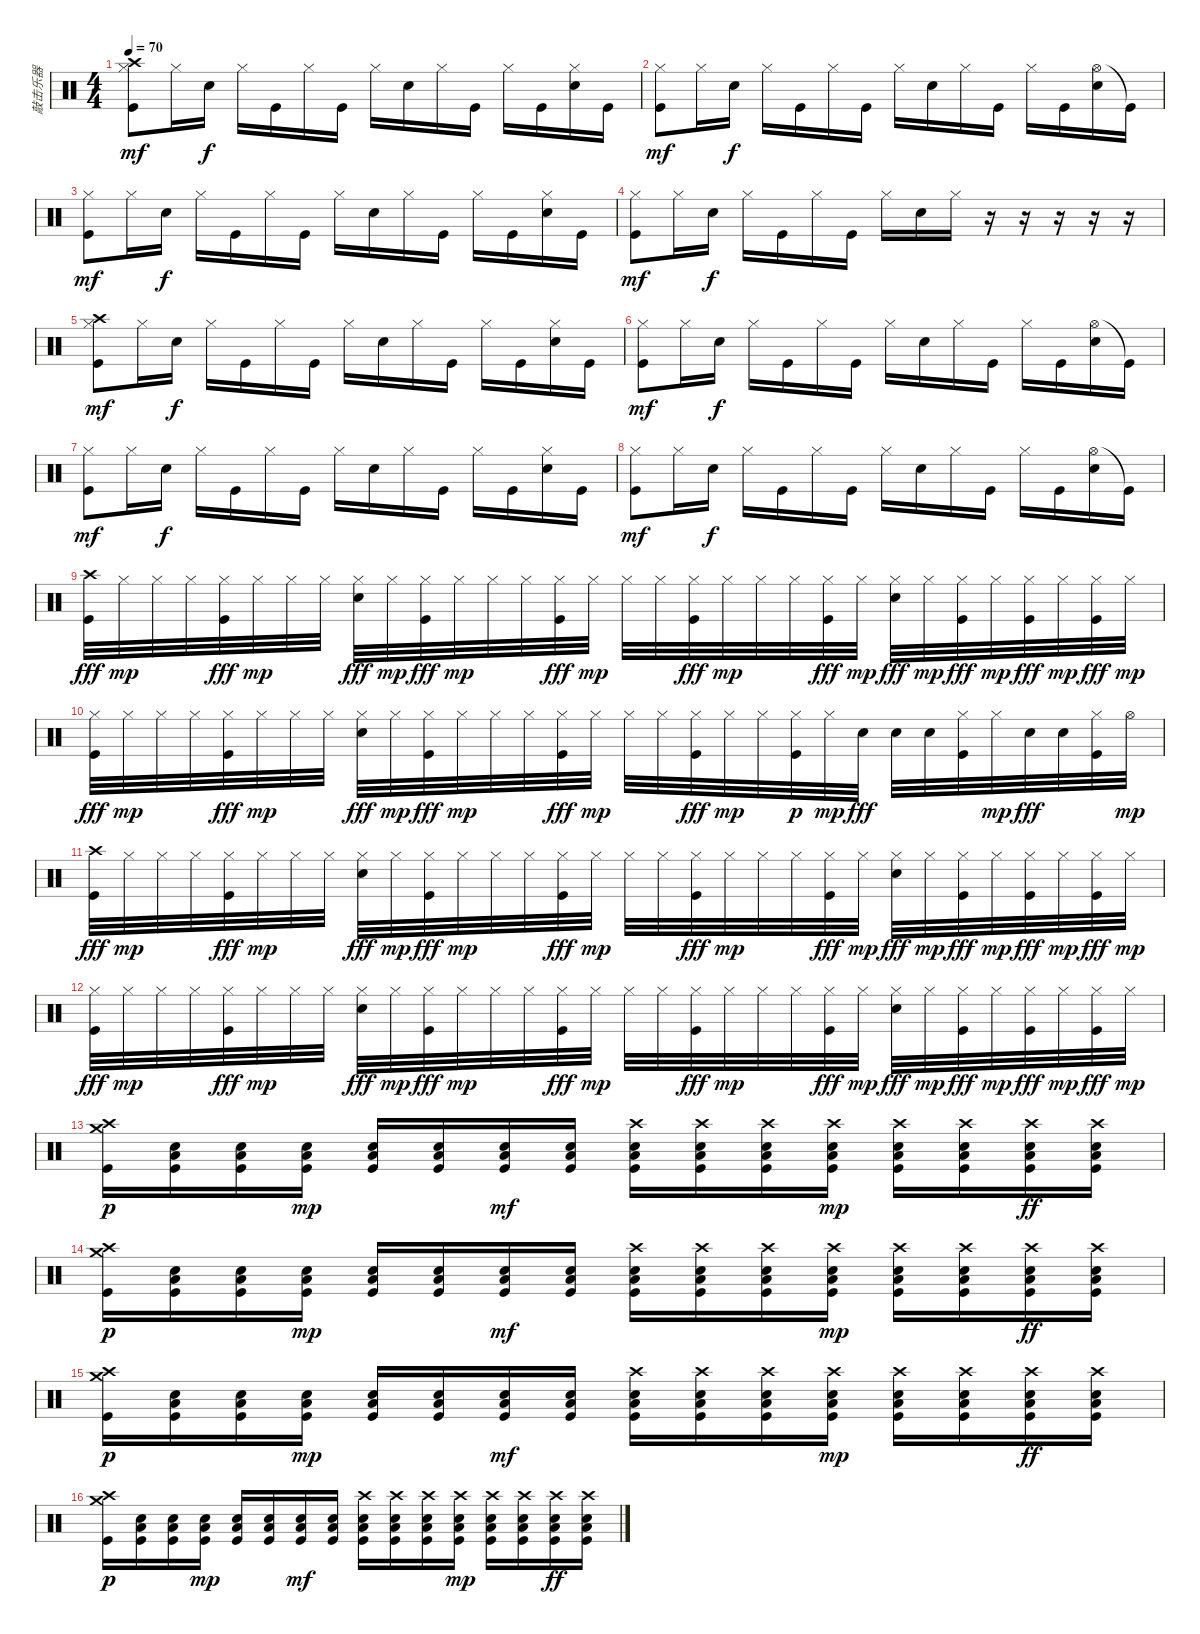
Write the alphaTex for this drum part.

\track ("敲击乐器" "敲击乐器") {instrument percussion}
\staff {score}
\articulation defaults
\ts (4 4)
\tempo 70
\clef neutral
\ks c
("Crash high (hit)" "Hi-Hat (closed)" "Kick (hit)").8{dy mf} "Hi-Hat (closed)".16 "Snare (hit) 2".16{dy f} "Hi-Hat (closed)".16 "Kick (hit)".16 "Hi-Hat (closed)".16 "Kick (hit)".16 "Hi-Hat (closed)".16 "Snare (hit) 2".16 "Hi-Hat (closed)".16 "Kick (hit)".16 "Hi-Hat (closed)".16 "Kick (hit)".16 ("Hi-Hat (closed)" "Snare (hit) 2").16 "Kick (hit)".16 |
("Hi-Hat (closed)" "Kick (hit)").8{dy mf} "Hi-Hat (closed)".16 "Snare (hit) 2".16{dy f} "Hi-Hat (closed)".16 "Kick (hit)".16 "Hi-Hat (closed)".16 "Kick (hit)".16 "Hi-Hat (closed)".16 "Snare (hit) 2".16 "Hi-Hat (closed)".16 "Kick (hit)".16 "Hi-Hat (closed)".16 "Kick (hit)".16 ("Hi-Hat (open)" "Snare (hit) 2").16 "Kick (hit)"{t}.16 |
("Hi-Hat (closed)" "Kick (hit)").8{dy mf} "Hi-Hat (closed)".16 "Snare (hit) 2".16{dy f} "Hi-Hat (closed)".16 "Kick (hit)".16 "Hi-Hat (closed)".16 "Kick (hit)".16 "Hi-Hat (closed)".16 "Snare (hit) 2".16 "Hi-Hat (closed)".16 "Kick (hit)".16 "Hi-Hat (closed)".16 "Kick (hit)".16 ("Hi-Hat (closed)" "Snare (hit) 2").16 "Kick (hit)".16 |
("Hi-Hat (closed)" "Kick (hit)").8{dy mf} "Hi-Hat (closed)".16 "Snare (hit) 2".16{dy f} "Hi-Hat (closed)".16 "Kick (hit)".16 "Hi-Hat (closed)".16 "Kick (hit)".16 "Hi-Hat (closed)".16 "Snare (hit) 2".16 "Hi-Hat (closed)".16 r.16 r.16 r.16 r.16 r.16 |
("Crash high (hit)" "Hi-Hat (closed)" "Kick (hit)").8{dy mf} "Hi-Hat (closed)".16 "Snare (hit) 2".16{dy f} "Hi-Hat (closed)".16 "Kick (hit)".16 "Hi-Hat (closed)".16 "Kick (hit)".16 "Hi-Hat (closed)".16 "Snare (hit) 2".16 "Hi-Hat (closed)".16 "Kick (hit)".16 "Hi-Hat (closed)".16 "Kick (hit)".16 ("Hi-Hat (closed)" "Snare (hit) 2").16 "Kick (hit)".16 |
("Hi-Hat (closed)" "Kick (hit)").8{dy mf} "Hi-Hat (closed)".16 "Snare (hit) 2".16{dy f} "Hi-Hat (closed)".16 "Kick (hit)".16 "Hi-Hat (closed)".16 "Kick (hit)".16 "Hi-Hat (closed)".16 "Snare (hit) 2".16 "Hi-Hat (closed)".16 "Kick (hit)".16 "Hi-Hat (closed)".16 "Kick (hit)".16 ("Hi-Hat (open)" "Snare (hit) 2").16 "Kick (hit)"{t}.16 |
("Hi-Hat (closed)" "Kick (hit)").8{dy mf} "Hi-Hat (closed)".16 "Snare (hit) 2".16{dy f} "Hi-Hat (closed)".16 "Kick (hit)".16 "Hi-Hat (closed)".16 "Kick (hit)".16 "Hi-Hat (closed)".16 "Snare (hit) 2".16 "Hi-Hat (closed)".16 "Kick (hit)".16 "Hi-Hat (closed)".16 "Kick (hit)".16 ("Hi-Hat (closed)" "Snare (hit) 2").16 "Kick (hit)".16 |
("Hi-Hat (closed)" "Kick (hit)").8{dy mf} "Hi-Hat (closed)".16 "Snare (hit) 2".16{dy f} "Hi-Hat (closed)".16 "Kick (hit)".16 "Hi-Hat (closed)".16 "Kick (hit)".16 "Hi-Hat (closed)".16 "Snare (hit) 2".16 "Hi-Hat (closed)".16 "Kick (hit)".16 "Hi-Hat (closed)".16 "Kick (hit)".16 ("Hi-Hat (open)" "Snare (hit) 2").16 "Kick (hit)"{t}.16 |
("Crash high (hit)" "Kick (hit)").32{dy fff} "Hi-Hat (closed)".32{dy mp} "Hi-Hat (closed)".32 "Hi-Hat (closed)".32 ("Hi-Hat (closed)" "Kick (hit)").32{dy fff} "Hi-Hat (closed)".32{dy mp} "Hi-Hat (closed)".32 "Hi-Hat (closed)".32 ("Hi-Hat (closed)" "Snare (hit) 2").32{dy fff} "Hi-Hat (closed)".32{dy mp} ("Hi-Hat (closed)" "Kick (hit)").32{dy fff} "Hi-Hat (closed)".32{dy mp} "Hi-Hat (closed)".32 "Hi-Hat (closed)".32 ("Hi-Hat (closed)" "Kick (hit)").32{dy fff} "Hi-Hat (closed)".32{dy mp} "Hi-Hat (closed)".32 "Hi-Hat (closed)".32 ("Hi-Hat (closed)" "Kick (hit)").32{dy fff} "Hi-Hat (closed)".32{dy mp} "Hi-Hat (closed)".32 "Hi-Hat (closed)".32 ("Hi-Hat (closed)" "Kick (hit)").32{dy fff} "Hi-Hat (closed)".32{dy mp} ("Hi-Hat (closed)" "Snare (hit) 2").32{dy fff} "Hi-Hat (closed)".32{dy mp} ("Hi-Hat (closed)" "Kick (hit)").32{dy fff} "Hi-Hat (closed)".32{dy mp} ("Hi-Hat (closed)" "Kick (hit)").32{dy fff} "Hi-Hat (closed)".32{dy mp} ("Hi-Hat (closed)" "Kick (hit)").32{dy fff} "Hi-Hat (closed)".32{dy mp} |
("Hi-Hat (closed)" "Kick (hit)").32{dy fff} "Hi-Hat (closed)".32{dy mp} "Hi-Hat (closed)".32 "Hi-Hat (closed)".32 ("Hi-Hat (closed)" "Kick (hit)").32{dy fff} "Hi-Hat (closed)".32{dy mp} "Hi-Hat (closed)".32 "Hi-Hat (closed)".32 ("Hi-Hat (closed)" "Snare (hit) 2").32{dy fff} "Hi-Hat (closed)".32{dy mp} ("Hi-Hat (closed)" "Kick (hit)").32{dy fff} "Hi-Hat (closed)".32{dy mp} "Hi-Hat (closed)".32 "Hi-Hat (closed)".32 ("Hi-Hat (closed)" "Kick (hit)").32{dy fff} "Hi-Hat (closed)".32{dy mp} "Hi-Hat (closed)".32 "Hi-Hat (closed)".32 ("Hi-Hat (closed)" "Kick (hit)").32{dy fff} "Hi-Hat (closed)".32{dy mp} "Hi-Hat (closed)".32 ("Hi-Hat (closed)" "Kick (hit)").32{dy p} "Hi-Hat (closed)".32{dy mp} "Snare (hit) 2".32{dy fff} "Snare (hit) 2".32 "Snare (hit) 2".32 ("Hi-Hat (closed)" "Kick (hit)").32 "Hi-Hat (closed)".32{dy mp} "Snare (hit) 2".32{dy fff} "Snare (hit) 2".32 ("Hi-Hat (closed)" "Kick (hit)").32 "Hi-Hat (open)".32{dy mp} |
("Crash high (hit)" "Kick (hit)").32{dy fff} "Hi-Hat (closed)".32{dy mp} "Hi-Hat (closed)".32 "Hi-Hat (closed)".32 ("Hi-Hat (closed)" "Kick (hit)").32{dy fff} "Hi-Hat (closed)".32{dy mp} "Hi-Hat (closed)".32 "Hi-Hat (closed)".32 ("Hi-Hat (closed)" "Snare (hit) 2").32{dy fff} "Hi-Hat (closed)".32{dy mp} ("Hi-Hat (closed)" "Kick (hit)").32{dy fff} "Hi-Hat (closed)".32{dy mp} "Hi-Hat (closed)".32 "Hi-Hat (closed)".32 ("Hi-Hat (closed)" "Kick (hit)").32{dy fff} "Hi-Hat (closed)".32{dy mp} "Hi-Hat (closed)".32 "Hi-Hat (closed)".32 ("Hi-Hat (closed)" "Kick (hit)").32{dy fff} "Hi-Hat (closed)".32{dy mp} "Hi-Hat (closed)".32 "Hi-Hat (closed)".32 ("Hi-Hat (closed)" "Kick (hit)").32{dy fff} "Hi-Hat (closed)".32{dy mp} ("Hi-Hat (closed)" "Snare (hit) 2").32{dy fff} "Hi-Hat (closed)".32{dy mp} ("Hi-Hat (closed)" "Kick (hit)").32{dy fff} "Hi-Hat (closed)".32{dy mp} ("Hi-Hat (closed)" "Kick (hit)").32{dy fff} "Hi-Hat (closed)".32{dy mp} ("Hi-Hat (closed)" "Kick (hit)").32{dy fff} "Hi-Hat (closed)".32{dy mp} |
("Hi-Hat (closed)" "Kick (hit)").32{dy fff} "Hi-Hat (closed)".32{dy mp} "Hi-Hat (closed)".32 "Hi-Hat (closed)".32 ("Hi-Hat (closed)" "Kick (hit)").32{dy fff} "Hi-Hat (closed)".32{dy mp} "Hi-Hat (closed)".32 "Hi-Hat (closed)".32 ("Hi-Hat (closed)" "Snare (hit) 2").32{dy fff} "Hi-Hat (closed)".32{dy mp} ("Hi-Hat (closed)" "Kick (hit)").32{dy fff} "Hi-Hat (closed)".32{dy mp} "Hi-Hat (closed)".32 "Hi-Hat (closed)".32 ("Hi-Hat (closed)" "Kick (hit)").32{dy fff} "Hi-Hat (closed)".32{dy mp} "Hi-Hat (closed)".32 "Hi-Hat (closed)".32 ("Hi-Hat (closed)" "Kick (hit)").32{dy fff} "Hi-Hat (closed)".32{dy mp} "Hi-Hat (closed)".32 "Hi-Hat (closed)".32 ("Hi-Hat (closed)" "Kick (hit)").32{dy fff} "Hi-Hat (closed)".32{dy mp} ("Hi-Hat (closed)" "Snare (hit) 2").32{dy fff} "Hi-Hat (closed)".32{dy mp} ("Hi-Hat (closed)" "Kick (hit)").32{dy fff} "Hi-Hat (closed)".32{dy mp} ("Hi-Hat (closed)" "Kick (hit)").32{dy fff} "Hi-Hat (closed)".32{dy mp} ("Hi-Hat (closed)" "Kick (hit)").32{dy fff} "Hi-Hat (closed)".32{dy mp} |
("Crash medium (hit)" "Kick (hit)" "Crash high (hit)").16{dy p} ("Snare (hit) 2" "Low Tom (hit)" "Kick (hit)").16 ("Snare (hit) 2" "Low Tom (hit)" "Kick (hit)").16 ("Snare (hit) 2" "Low Tom (hit)" "Kick (hit)").16{dy mp} ("Snare (hit) 2" "Low Tom (hit)" "Kick (hit)").16 ("Snare (hit) 2" "Low Tom (hit)" "Kick (hit)").16 ("Snare (hit) 2" "Low Tom (hit)" "Kick (hit)").16{dy mf} ("Snare (hit) 2" "Low Tom (hit)" "Kick (hit)").16 ("Crash high (hit)" "Snare (hit) 2" "Low Tom (hit)" "Kick (hit)").16 ("Crash high (hit)" "Snare (hit) 2" "Low Tom (hit)" "Kick (hit)").16 ("Crash high (hit)" "Snare (hit) 2" "Low Tom (hit)" "Kick (hit)").16 ("Crash high (hit)" "Snare (hit) 2" "Low Tom (hit)" "Kick (hit)").16{dy mp} ("Crash high (hit)" "Snare (hit) 2" "Low Tom (hit)" "Kick (hit)").16 ("Crash high (hit)" "Snare (hit) 2" "Low Tom (hit)" "Kick (hit)").16 ("Crash high (hit)" "Snare (hit) 2" "Low Tom (hit)" "Kick (hit)").16{dy ff} ("Crash high (hit)" "Snare (hit) 2" "Low Tom (hit)" "Kick (hit)").16 |
("Crash medium (hit)" "Kick (hit)" "Crash high (hit)").16{dy p} ("Snare (hit) 2" "Low Tom (hit)" "Kick (hit)").16 ("Snare (hit) 2" "Low Tom (hit)" "Kick (hit)").16 ("Snare (hit) 2" "Low Tom (hit)" "Kick (hit)").16{dy mp} ("Snare (hit) 2" "Low Tom (hit)" "Kick (hit)").16 ("Snare (hit) 2" "Low Tom (hit)" "Kick (hit)").16 ("Snare (hit) 2" "Low Tom (hit)" "Kick (hit)").16{dy mf} ("Snare (hit) 2" "Low Tom (hit)" "Kick (hit)").16 ("Crash high (hit)" "Snare (hit) 2" "Low Tom (hit)" "Kick (hit)").16 ("Crash high (hit)" "Snare (hit) 2" "Low Tom (hit)" "Kick (hit)").16 ("Crash high (hit)" "Snare (hit) 2" "Low Tom (hit)" "Kick (hit)").16 ("Crash high (hit)" "Snare (hit) 2" "Low Tom (hit)" "Kick (hit)").16{dy mp} ("Crash high (hit)" "Snare (hit) 2" "Low Tom (hit)" "Kick (hit)").16 ("Crash high (hit)" "Snare (hit) 2" "Low Tom (hit)" "Kick (hit)").16 ("Crash high (hit)" "Snare (hit) 2" "Low Tom (hit)" "Kick (hit)").16{dy ff} ("Crash high (hit)" "Snare (hit) 2" "Low Tom (hit)" "Kick (hit)").16 |
("Crash medium (hit)" "Kick (hit)" "Crash high (hit)").16{dy p} ("Snare (hit) 2" "Low Tom (hit)" "Kick (hit)").16 ("Snare (hit) 2" "Low Tom (hit)" "Kick (hit)").16 ("Snare (hit) 2" "Low Tom (hit)" "Kick (hit)").16{dy mp} ("Snare (hit) 2" "Low Tom (hit)" "Kick (hit)").16 ("Snare (hit) 2" "Low Tom (hit)" "Kick (hit)").16 ("Snare (hit) 2" "Low Tom (hit)" "Kick (hit)").16{dy mf} ("Snare (hit) 2" "Low Tom (hit)" "Kick (hit)").16 ("Crash high (hit)" "Snare (hit) 2" "Low Tom (hit)" "Kick (hit)").16 ("Crash high (hit)" "Snare (hit) 2" "Low Tom (hit)" "Kick (hit)").16 ("Crash high (hit)" "Snare (hit) 2" "Low Tom (hit)" "Kick (hit)").16 ("Crash high (hit)" "Snare (hit) 2" "Low Tom (hit)" "Kick (hit)").16{dy mp} ("Crash high (hit)" "Snare (hit) 2" "Low Tom (hit)" "Kick (hit)").16 ("Crash high (hit)" "Snare (hit) 2" "Low Tom (hit)" "Kick (hit)").16 ("Crash high (hit)" "Snare (hit) 2" "Low Tom (hit)" "Kick (hit)").16{dy ff} ("Crash high (hit)" "Snare (hit) 2" "Low Tom (hit)" "Kick (hit)").16 |
("Crash medium (hit)" "Kick (hit)" "Crash high (hit)").16{dy p} ("Snare (hit) 2" "Low Tom (hit)" "Kick (hit)").16 ("Snare (hit) 2" "Low Tom (hit)" "Kick (hit)").16 ("Snare (hit) 2" "Low Tom (hit)" "Kick (hit)").16{dy mp} ("Snare (hit) 2" "Low Tom (hit)" "Kick (hit)").16 ("Snare (hit) 2" "Low Tom (hit)" "Kick (hit)").16 ("Snare (hit) 2" "Low Tom (hit)" "Kick (hit)").16{dy mf} ("Snare (hit) 2" "Low Tom (hit)" "Kick (hit)").16 ("Crash high (hit)" "Snare (hit) 2" "Low Tom (hit)" "Kick (hit)").16 ("Crash high (hit)" "Snare (hit) 2" "Low Tom (hit)" "Kick (hit)").16 ("Crash high (hit)" "Snare (hit) 2" "Low Tom (hit)" "Kick (hit)").16 ("Crash high (hit)" "Snare (hit) 2" "Low Tom (hit)" "Kick (hit)").16{dy mp} ("Crash high (hit)" "Snare (hit) 2" "Low Tom (hit)" "Kick (hit)").16 ("Crash high (hit)" "Snare (hit) 2" "Low Tom (hit)" "Kick (hit)").16 ("Crash high (hit)" "Snare (hit) 2" "Low Tom (hit)" "Kick (hit)").16{dy ff} ("Crash high (hit)" "Snare (hit) 2" "Low Tom (hit)" "Kick (hit)").16
